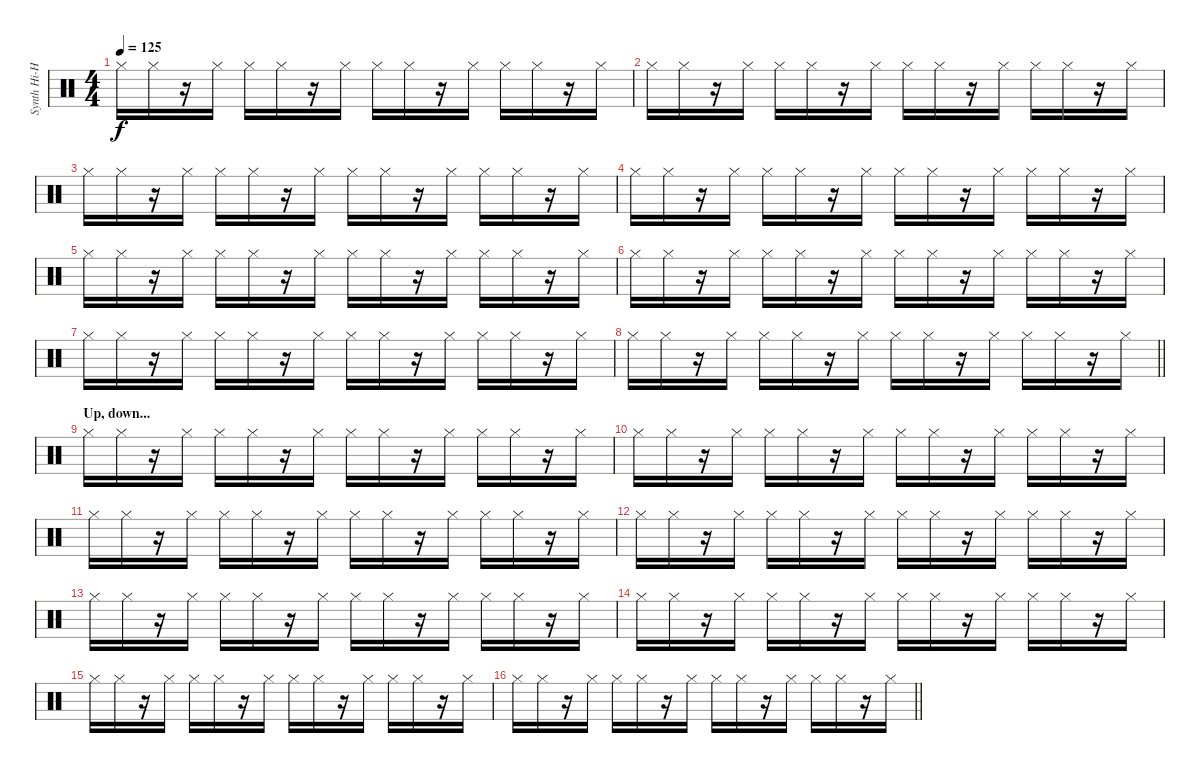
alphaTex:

\track ("Synth Hi-Hat (Gillian)" "Synth Hi-H") {instrument percussion}
\staff {score}
\articulation defaults
\ts (4 4)
\tempo 125
\clef neutral
\ks c "Hi-Hat (closed)".16{dy f} "Hi-Hat (closed)".16
r.16 "Hi-Hat (closed)".16 "Hi-Hat (closed)".16 "Hi-Hat (closed)".16 r.16 "Hi-Hat (closed)".16 "Hi-Hat (closed)".16 "Hi-Hat (closed)".16 r.16 "Hi-Hat (closed)".16 "Hi-Hat (closed)".16 "Hi-Hat (closed)".16 r.16 "Hi-Hat (closed)".16 |
"Hi-Hat (closed)".16 "Hi-Hat (closed)".16 r.16 "Hi-Hat (closed)".16 "Hi-Hat (closed)".16 "Hi-Hat (closed)".16 r.16 "Hi-Hat (closed)".16 "Hi-Hat (closed)".16 "Hi-Hat (closed)".16 r.16 "Hi-Hat (closed)".16 "Hi-Hat (closed)".16 "Hi-Hat (closed)".16 r.16 "Hi-Hat (closed)".16 |
"Hi-Hat (closed)".16 "Hi-Hat (closed)".16 r.16 "Hi-Hat (closed)".16 "Hi-Hat (closed)".16 "Hi-Hat (closed)".16 r.16 "Hi-Hat (closed)".16 "Hi-Hat (closed)".16 "Hi-Hat (closed)".16 r.16 "Hi-Hat (closed)".16 "Hi-Hat (closed)".16 "Hi-Hat (closed)".16 r.16 "Hi-Hat (closed)".16 |
"Hi-Hat (closed)".16 "Hi-Hat (closed)".16 r.16 "Hi-Hat (closed)".16 "Hi-Hat (closed)".16 "Hi-Hat (closed)".16 r.16 "Hi-Hat (closed)".16 "Hi-Hat (closed)".16 "Hi-Hat (closed)".16 r.16 "Hi-Hat (closed)".16 "Hi-Hat (closed)".16 "Hi-Hat (closed)".16 r.16 "Hi-Hat (closed)".16 |
"Hi-Hat (closed)".16 "Hi-Hat (closed)".16 r.16 "Hi-Hat (closed)".16 "Hi-Hat (closed)".16 "Hi-Hat (closed)".16 r.16 "Hi-Hat (closed)".16 "Hi-Hat (closed)".16 "Hi-Hat (closed)".16 r.16 "Hi-Hat (closed)".16 "Hi-Hat (closed)".16 "Hi-Hat (closed)".16 r.16 "Hi-Hat (closed)".16 |
"Hi-Hat (closed)".16 "Hi-Hat (closed)".16 r.16 "Hi-Hat (closed)".16 "Hi-Hat (closed)".16 "Hi-Hat (closed)".16 r.16 "Hi-Hat (closed)".16 "Hi-Hat (closed)".16 "Hi-Hat (closed)".16 r.16 "Hi-Hat (closed)".16 "Hi-Hat (closed)".16 "Hi-Hat (closed)".16 r.16 "Hi-Hat (closed)".16 |
"Hi-Hat (closed)".16 "Hi-Hat (closed)".16 r.16 "Hi-Hat (closed)".16 "Hi-Hat (closed)".16 "Hi-Hat (closed)".16 r.16 "Hi-Hat (closed)".16 "Hi-Hat (closed)".16 "Hi-Hat (closed)".16 r.16 "Hi-Hat (closed)".16 "Hi-Hat (closed)".16 "Hi-Hat (closed)".16 r.16 "Hi-Hat (closed)".16 |
\barLineRight lightlight "Hi-Hat (closed)".16 "Hi-Hat (closed)".16
r.16 "Hi-Hat (closed)".16 "Hi-Hat (closed)".16 "Hi-Hat (closed)".16 r.16 "Hi-Hat (closed)".16 "Hi-Hat (closed)".16 "Hi-Hat (closed)".16 r.16 "Hi-Hat (closed)".16 "Hi-Hat (closed)".16 "Hi-Hat (closed)".16 r.16 "Hi-Hat (closed)".16 |
\section ("" "Up, down...")
"Hi-Hat (closed)".16 "Hi-Hat (closed)".16 r.16 "Hi-Hat (closed)".16 "Hi-Hat (closed)".16 "Hi-Hat (closed)".16 r.16 "Hi-Hat (closed)".16 "Hi-Hat (closed)".16 "Hi-Hat (closed)".16 r.16 "Hi-Hat (closed)".16 "Hi-Hat (closed)".16 "Hi-Hat (closed)".16 r.16 "Hi-Hat (closed)".16 |
"Hi-Hat (closed)".16 "Hi-Hat (closed)".16 r.16 "Hi-Hat (closed)".16 "Hi-Hat (closed)".16 "Hi-Hat (closed)".16 r.16 "Hi-Hat (closed)".16 "Hi-Hat (closed)".16 "Hi-Hat (closed)".16 r.16 "Hi-Hat (closed)".16 "Hi-Hat (closed)".16 "Hi-Hat (closed)".16 r.16 "Hi-Hat (closed)".16 |
"Hi-Hat (closed)".16 "Hi-Hat (closed)".16 r.16 "Hi-Hat (closed)".16 "Hi-Hat (closed)".16 "Hi-Hat (closed)".16 r.16 "Hi-Hat (closed)".16 "Hi-Hat (closed)".16 "Hi-Hat (closed)".16 r.16 "Hi-Hat (closed)".16 "Hi-Hat (closed)".16 "Hi-Hat (closed)".16 r.16 "Hi-Hat (closed)".16 |
"Hi-Hat (closed)".16 "Hi-Hat (closed)".16 r.16 "Hi-Hat (closed)".16 "Hi-Hat (closed)".16 "Hi-Hat (closed)".16 r.16 "Hi-Hat (closed)".16 "Hi-Hat (closed)".16 "Hi-Hat (closed)".16 r.16 "Hi-Hat (closed)".16 "Hi-Hat (closed)".16 "Hi-Hat (closed)".16 r.16 "Hi-Hat (closed)".16 |
"Hi-Hat (closed)".16 "Hi-Hat (closed)".16 r.16 "Hi-Hat (closed)".16 "Hi-Hat (closed)".16 "Hi-Hat (closed)".16 r.16 "Hi-Hat (closed)".16 "Hi-Hat (closed)".16 "Hi-Hat (closed)".16 r.16 "Hi-Hat (closed)".16 "Hi-Hat (closed)".16 "Hi-Hat (closed)".16 r.16 "Hi-Hat (closed)".16 |
"Hi-Hat (closed)".16 "Hi-Hat (closed)".16 r.16 "Hi-Hat (closed)".16 "Hi-Hat (closed)".16 "Hi-Hat (closed)".16 r.16 "Hi-Hat (closed)".16 "Hi-Hat (closed)".16 "Hi-Hat (closed)".16 r.16 "Hi-Hat (closed)".16 "Hi-Hat (closed)".16 "Hi-Hat (closed)".16 r.16 "Hi-Hat (closed)".16 |
"Hi-Hat (closed)".16 "Hi-Hat (closed)".16 r.16 "Hi-Hat (closed)".16 "Hi-Hat (closed)".16 "Hi-Hat (closed)".16 r.16 "Hi-Hat (closed)".16 "Hi-Hat (closed)".16 "Hi-Hat (closed)".16 r.16 "Hi-Hat (closed)".16 "Hi-Hat (closed)".16 "Hi-Hat (closed)".16 r.16 "Hi-Hat (closed)".16 |
\barLineRight lightlight "Hi-Hat (closed)".16 "Hi-Hat (closed)".16
r.16 "Hi-Hat (closed)".16 "Hi-Hat (closed)".16 "Hi-Hat (closed)".16 r.16 "Hi-Hat (closed)".16 "Hi-Hat (closed)".16 "Hi-Hat (closed)".16 r.16 "Hi-Hat (closed)".16 "Hi-Hat (closed)".16 "Hi-Hat (closed)".16 r.16 "Hi-Hat (closed)".16
